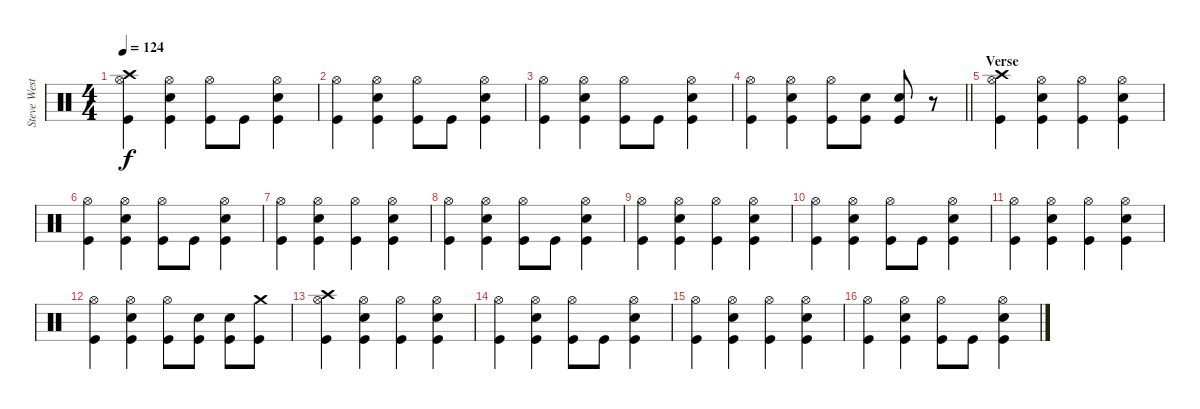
\track ("Steve West" "Steve West") {instrument percussion}
\staff {score}
\articulation defaults
\ts (4 4)
\tempo 124
\clef neutral
\ks c
("Crash high (hit)" "Hi-Hat (open)" "Kick (hit)").4{dy f} ("Hi-Hat (open)" "Snare (hit) 2" "Kick (hit)").4 ("Hi-Hat (open)" "Kick (hit)").8 "Kick (hit)".8 ("Hi-Hat (open)" "Snare (hit) 2" "Kick (hit)").4 |
("Hi-Hat (open)" "Kick (hit)").4 ("Hi-Hat (open)" "Snare (hit) 2" "Kick (hit)").4 ("Hi-Hat (open)" "Kick (hit)").8 "Kick (hit)".8 ("Hi-Hat (open)" "Snare (hit) 2" "Kick (hit)").4 |
("Hi-Hat (open)" "Kick (hit)").4 ("Hi-Hat (open)" "Snare (hit) 2" "Kick (hit)").4 ("Hi-Hat (open)" "Kick (hit)").8 "Kick (hit)".8 ("Hi-Hat (open)" "Snare (hit) 2" "Kick (hit)").4 |
\barLineRight lightlight
("Hi-Hat (open)" "Kick (hit)").4 ("Hi-Hat (open)" "Snare (hit) 2" "Kick (hit)").4 ("Hi-Hat (open)" "Kick (hit)").8 ("Snare (hit) 2" "Kick (hit)").8 ("Snare (hit) 2" "Kick (hit)").8 r.8 |
\section ("" "Verse")
("Crash high (hit)" "Hi-Hat (open)" "Kick (hit)").4 ("Hi-Hat (open)" "Snare (hit) 2" "Kick (hit)").4 ("Hi-Hat (open)" "Kick (hit)").4 ("Hi-Hat (open)" "Snare (hit) 2" "Kick (hit)").4 |
("Hi-Hat (open)" "Kick (hit)").4 ("Hi-Hat (open)" "Snare (hit) 2" "Kick (hit)").4 ("Hi-Hat (open)" "Kick (hit)").8 "Kick (hit)".8 ("Hi-Hat (open)" "Snare (hit) 2" "Kick (hit)").4 |
("Hi-Hat (open)" "Kick (hit)").4 ("Hi-Hat (open)" "Snare (hit) 2" "Kick (hit)").4 ("Hi-Hat (open)" "Kick (hit)").4 ("Hi-Hat (open)" "Snare (hit) 2" "Kick (hit)").4 |
("Hi-Hat (open)" "Kick (hit)").4 ("Hi-Hat (open)" "Snare (hit) 2" "Kick (hit)").4 ("Hi-Hat (open)" "Kick (hit)").8 "Kick (hit)".8 ("Hi-Hat (open)" "Snare (hit) 2" "Kick (hit)").4 |
("Hi-Hat (open)" "Kick (hit)").4 ("Hi-Hat (open)" "Snare (hit) 2" "Kick (hit)").4 ("Hi-Hat (open)" "Kick (hit)").4 ("Hi-Hat (open)" "Snare (hit) 2" "Kick (hit)").4 |
("Hi-Hat (open)" "Kick (hit)").4 ("Hi-Hat (open)" "Snare (hit) 2" "Kick (hit)").4 ("Hi-Hat (open)" "Kick (hit)").8 "Kick (hit)".8 ("Hi-Hat (open)" "Snare (hit) 2" "Kick (hit)").4 |
("Hi-Hat (open)" "Kick (hit)").4 ("Hi-Hat (open)" "Snare (hit) 2" "Kick (hit)").4 ("Hi-Hat (open)" "Kick (hit)").4 ("Hi-Hat (open)" "Snare (hit) 2" "Kick (hit)").4 |
("Hi-Hat (open)" "Kick (hit)").4 ("Hi-Hat (open)" "Snare (hit) 2" "Kick (hit)").4 ("Hi-Hat (open)" "Kick (hit)").8 ("Snare (hit) 2" "Kick (hit)").8 ("Snare (hit) 2" "Kick (hit)").8 ("Crash medium (hit)" "Kick (hit)").8 |
("Crash high (hit)" "Hi-Hat (open)" "Kick (hit)").4 ("Hi-Hat (open)" "Snare (hit) 2" "Kick (hit)").4 ("Hi-Hat (open)" "Kick (hit)").4 ("Hi-Hat (open)" "Snare (hit) 2" "Kick (hit)").4 |
("Hi-Hat (open)" "Kick (hit)").4 ("Hi-Hat (open)" "Snare (hit) 2" "Kick (hit)").4 ("Hi-Hat (open)" "Kick (hit)").8 "Kick (hit)".8 ("Hi-Hat (open)" "Snare (hit) 2" "Kick (hit)").4 |
("Hi-Hat (open)" "Kick (hit)").4 ("Hi-Hat (open)" "Snare (hit) 2" "Kick (hit)").4 ("Hi-Hat (open)" "Kick (hit)").4 ("Hi-Hat (open)" "Snare (hit) 2" "Kick (hit)").4 |
("Hi-Hat (open)" "Kick (hit)").4 ("Hi-Hat (open)" "Snare (hit) 2" "Kick (hit)").4 ("Hi-Hat (open)" "Kick (hit)").8 "Kick (hit)".8 ("Hi-Hat (open)" "Snare (hit) 2" "Kick (hit)").4
